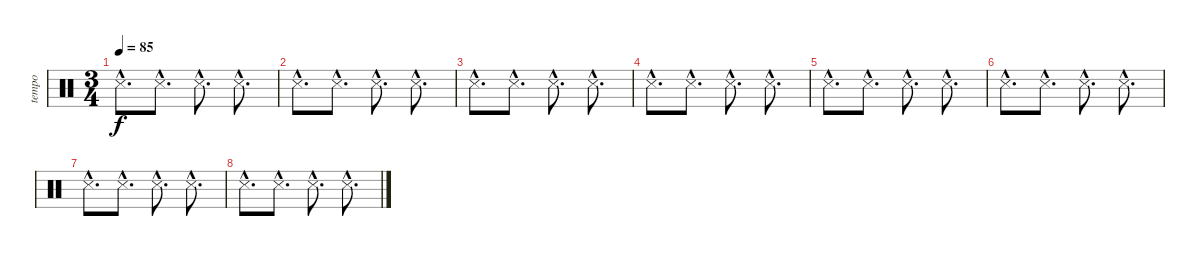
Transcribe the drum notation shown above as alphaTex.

\track ("tempo" "tempo") {instrument percussion}
\staff {score}
\articulation defaults
\ts (3 4)
\tempo 85
\clef neutral
\ks c "Metronome (hit)"{hac}.8{d dy f} "Metronome (hit)"{hac}.8{d} "Metronome (hit)"{hac}.8{d} "Metronome (hit)"{hac}.8{d}
|
"Metronome (hit)"{hac}.8{d} "Metronome (hit)"{hac}.8{d} "Metronome (hit)"{hac}.8{d} "Metronome (hit)"{hac}.8{d} |
"Metronome (hit)"{hac}.8{d} "Metronome (hit)"{hac}.8{d} "Metronome (hit)"{hac}.8{d} "Metronome (hit)"{hac}.8{d} |
"Metronome (hit)"{hac}.8{d} "Metronome (hit)"{hac}.8{d} "Metronome (hit)"{hac}.8{d} "Metronome (hit)"{hac}.8{d} |
"Metronome (hit)"{hac}.8{d} "Metronome (hit)"{hac}.8{d} "Metronome (hit)"{hac}.8{d} "Metronome (hit)"{hac}.8{d} |
"Metronome (hit)"{hac}.8{d} "Metronome (hit)"{hac}.8{d} "Metronome (hit)"{hac}.8{d} "Metronome (hit)"{hac}.8{d} |
"Metronome (hit)"{hac}.8{d} "Metronome (hit)"{hac}.8{d} "Metronome (hit)"{hac}.8{d} "Metronome (hit)"{hac}.8{d} |
"Metronome (hit)"{hac}.8{d} "Metronome (hit)"{hac}.8{d} "Metronome (hit)"{hac}.8{d} "Metronome (hit)"{hac}.8{d}
